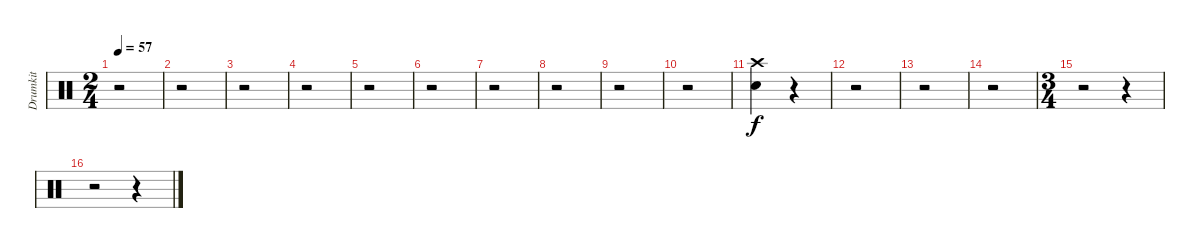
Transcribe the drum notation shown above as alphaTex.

\track ("Drumkit" "Drumkit") {instrument percussion}
\staff {score}
\articulation defaults
\ts (2 4)
\tempo 57
\clef neutral
\ks c
r.2{dy f} |
r.2 |
r.2 |
r.2 |
r.2 |
r.2 |
r.2 |
r.2 |
r.2 |
r.2 |
("Crash high (hit)" "Snare (hit) 2").4 r.4 |
r.2 |
r.2 |
r.2 |
\ts (3 4)
r.2 r.4 |
r.2 r.4
